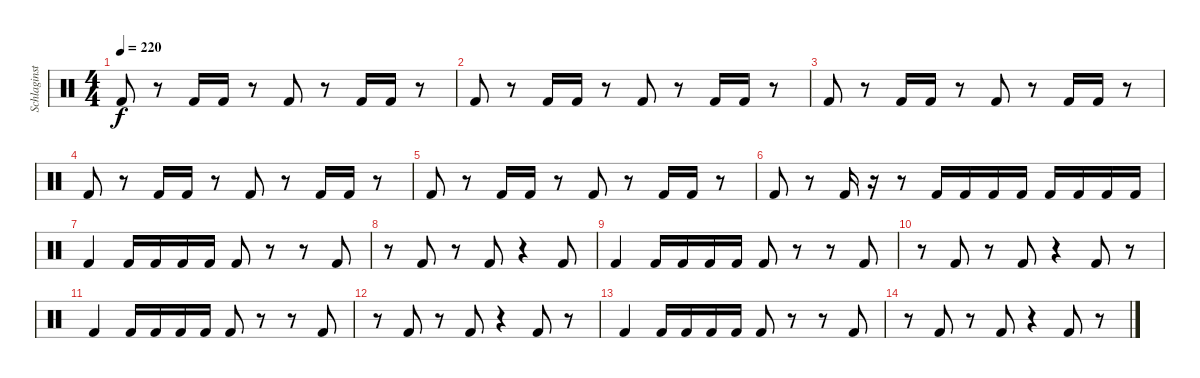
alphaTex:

\track ("Schlaginstrumente - Auswahl" "Schlaginst") {instrument percussion}
\staff {score}
\articulation defaults
\ts (4 4)
\tempo 220
\clef neutral
\ks c "Kick (hit) 2".8{dy f}
r.8 "Kick (hit) 2".16 "Kick (hit) 2".16 r.8 "Kick (hit) 2".8 r.8 "Kick (hit) 2".16 "Kick (hit) 2".16 r.8 |
"Kick (hit) 2".8 r.8 "Kick (hit) 2".16 "Kick (hit) 2".16 r.8 "Kick (hit) 2".8 r.8 "Kick (hit) 2".16 "Kick (hit) 2".16 r.8 |
"Kick (hit) 2".8 r.8 "Kick (hit) 2".16 "Kick (hit) 2".16 r.8 "Kick (hit) 2".8 r.8 "Kick (hit) 2".16 "Kick (hit) 2".16 r.8 |
"Kick (hit) 2".8 r.8 "Kick (hit) 2".16 "Kick (hit) 2".16 r.8 "Kick (hit) 2".8 r.8 "Kick (hit) 2".16 "Kick (hit) 2".16 r.8 |
"Kick (hit) 2".8 r.8 "Kick (hit) 2".16 "Kick (hit) 2".16 r.8 "Kick (hit) 2".8 r.8 "Kick (hit) 2".16 "Kick (hit) 2".16 r.8 |
"Kick (hit) 2".8 r.8 "Kick (hit) 2".16 r.16 r.8 "Kick (hit) 2".16 "Kick (hit) 2".16 "Kick (hit) 2".16 "Kick (hit) 2".16 "Kick (hit) 2".16 "Kick (hit) 2".16 "Kick (hit) 2".16 "Kick (hit) 2".16 |
"Kick (hit) 2".4 "Kick (hit) 2".16 "Kick (hit) 2".16 "Kick (hit) 2".16 "Kick (hit) 2".16 "Kick (hit) 2".8 r.8 r.8 "Kick (hit) 2".8 |
r.8 "Kick (hit) 2".8 r.8 "Kick (hit) 2".8 r.4 "Kick (hit) 2".8 |
"Kick (hit) 2".4 "Kick (hit) 2".16 "Kick (hit) 2".16 "Kick (hit) 2".16 "Kick (hit) 2".16 "Kick (hit) 2".8 r.8 r.8 "Kick (hit) 2".8 |
r.8 "Kick (hit) 2".8 r.8 "Kick (hit) 2".8 r.4 "Kick (hit) 2".8 r.8 |
"Kick (hit) 2".4 "Kick (hit) 2".16 "Kick (hit) 2".16 "Kick (hit) 2".16 "Kick (hit) 2".16 "Kick (hit) 2".8 r.8 r.8 "Kick (hit) 2".8 |
r.8 "Kick (hit) 2".8 r.8 "Kick (hit) 2".8 r.4 "Kick (hit) 2".8 r.8 |
"Kick (hit) 2".4 "Kick (hit) 2".16 "Kick (hit) 2".16 "Kick (hit) 2".16 "Kick (hit) 2".16 "Kick (hit) 2".8 r.8 r.8 "Kick (hit) 2".8 |
r.8 "Kick (hit) 2".8 r.8 "Kick (hit) 2".8 r.4 "Kick (hit) 2".8 r.8
